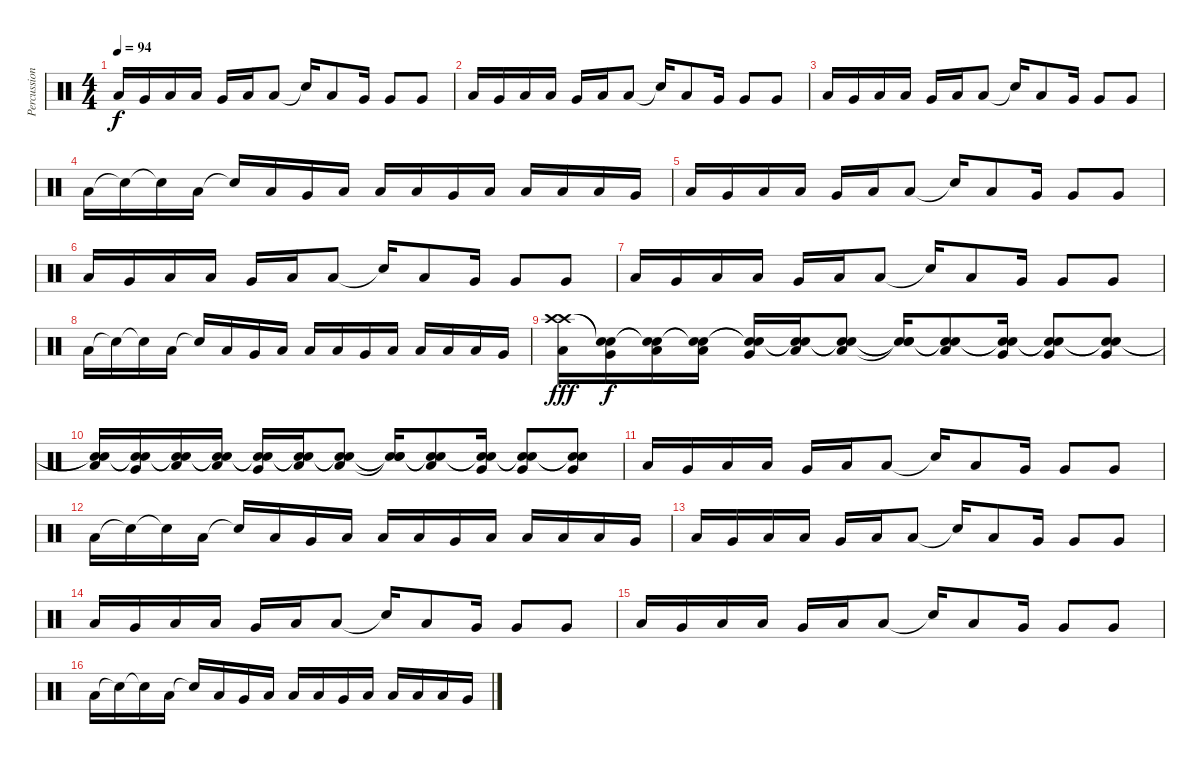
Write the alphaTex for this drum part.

\track ("Percussion" "Percussion") {instrument percussion}
\staff {score}
\articulation defaults
\ts (4 4)
\tempo 94
\clef neutral
\ks c "Low Floor Tom (hit)".16{dy f} "Very Low Tom (hit)".16 "Low Floor Tom (hit)".16 "Low Floor Tom (hit)".16 "Very Low Tom (hit)".16 "Low Floor Tom (hit)".16 "Low Floor Tom (hit)".8 "Snare (hit)"{t}.16 "Low Floor Tom (hit)".8 "Very Low Tom (hit)".16 "Very Low Tom (hit)".8 "Very Low Tom (hit)".8
|
"Low Floor Tom (hit)".16 "Very Low Tom (hit)".16 "Low Floor Tom (hit)".16 "Low Floor Tom (hit)".16 "Very Low Tom (hit)".16 "Low Floor Tom (hit)".16 "Low Floor Tom (hit)".8 "Snare (hit)"{t}.16 "Low Floor Tom (hit)".8 "Very Low Tom (hit)".16 "Very Low Tom (hit)".8 "Very Low Tom (hit)".8 |
"Low Floor Tom (hit)".16 "Very Low Tom (hit)".16 "Low Floor Tom (hit)".16 "Low Floor Tom (hit)".16 "Very Low Tom (hit)".16 "Low Floor Tom (hit)".16 "Low Floor Tom (hit)".8 "Snare (hit)"{t}.16 "Low Floor Tom (hit)".8 "Very Low Tom (hit)".16 "Very Low Tom (hit)".8 "Very Low Tom (hit)".8 |
"Low Floor Tom (hit)".16 "Snare (hit)"{t}.16 "Snare (hit)"{t}.16 "Low Floor Tom (hit)".16 "Snare (hit)"{t}.16 "Low Floor Tom (hit)".16 "Very Low Tom (hit)".16 "Low Floor Tom (hit)".16 "Low Floor Tom (hit)".16 "Low Tom (hit)".16 "Very Low Tom (hit)".16 "Low Floor Tom (hit)".16 "Low Tom (hit)".16 "Low Floor Tom (hit)".16 "Low Tom (hit)".16 "Very Low Tom (hit)".16 |
"Low Floor Tom (hit)".16 "Very Low Tom (hit)".16 "Low Floor Tom (hit)".16 "Low Floor Tom (hit)".16 "Very Low Tom (hit)".16 "Low Floor Tom (hit)".16 "Low Floor Tom (hit)".8 "Snare (hit)"{t}.16 "Low Floor Tom (hit)".8 "Very Low Tom (hit)".16 "Very Low Tom (hit)".8 "Very Low Tom (hit)".8 |
"Low Floor Tom (hit)".16 "Very Low Tom (hit)".16 "Low Floor Tom (hit)".16 "Low Floor Tom (hit)".16 "Very Low Tom (hit)".16 "Low Floor Tom (hit)".16 "Low Floor Tom (hit)".8 "Snare (hit)"{t}.16 "Low Floor Tom (hit)".8 "Very Low Tom (hit)".16 "Very Low Tom (hit)".8 "Very Low Tom (hit)".8 |
"Low Floor Tom (hit)".16 "Very Low Tom (hit)".16 "Low Floor Tom (hit)".16 "Low Floor Tom (hit)".16 "Very Low Tom (hit)".16 "Low Floor Tom (hit)".16 "Low Floor Tom (hit)".8 "Snare (hit)"{t}.16 "Low Floor Tom (hit)".8 "Very Low Tom (hit)".16 "Very Low Tom (hit)".8 "Very Low Tom (hit)".8 |
"Low Floor Tom (hit)".16 "Snare (hit)"{t}.16 "Snare (hit)"{t}.16 "Low Floor Tom (hit)".16 "Snare (hit)"{t}.16 "Low Floor Tom (hit)".16 "Very Low Tom (hit)".16 "Low Floor Tom (hit)".16 "Low Floor Tom (hit)".16 "Low Tom (hit)".16 "Very Low Tom (hit)".16 "Low Floor Tom (hit)".16 "Low Tom (hit)".16 "Low Floor Tom (hit)".16 "Low Tom (hit)".16 "Very Low Tom (hit)".16 |
("Crash high (hit)" "Crash high (hit)" "Low Floor Tom (hit)").16{dy fff} ("Snare (hit)"{t} "Snare (hit)"{t} "Very Low Tom (hit)").16{dy f} ("Snare (hit)"{t} "Snare (hit)"{t} "Low Floor Tom (hit)").16 ("Snare (hit)"{t} "Snare (hit)"{t} "Low Floor Tom (hit)").16 ("Snare (hit)"{t} "Snare (hit)"{t} "Very Low Tom (hit)").16 ("Snare (hit)"{t} "Snare (hit)"{t} "Low Floor Tom (hit)").16 ("Snare (hit)"{t} "Snare (hit)"{t} "Low Floor Tom (hit)").8 ("Snare (hit)"{t} "Snare (hit)"{t} "Snare (hit)"{t}).16 ("Snare (hit)"{t} "Snare (hit)"{t} "Low Floor Tom (hit)").8 ("Snare (hit)"{t} "Snare (hit)"{t} "Very Low Tom (hit)").16 ("Snare (hit)"{t} "Snare (hit)"{t} "Very Low Tom (hit)").8 ("Snare (hit)"{t} "Snare (hit)"{t} "Very Low Tom (hit)").8 |
("Snare (hit)"{t} "Snare (hit)"{t} "Low Floor Tom (hit)").16 ("Snare (hit)"{t} "Snare (hit)"{t} "Very Low Tom (hit)").16 ("Snare (hit)"{t} "Snare (hit)"{t} "Low Floor Tom (hit)").16 ("Snare (hit)"{t} "Snare (hit)"{t} "Low Floor Tom (hit)").16 ("Snare (hit)"{t} "Snare (hit)"{t} "Very Low Tom (hit)").16 ("Snare (hit)"{t} "Snare (hit)"{t} "Low Floor Tom (hit)").16 ("Snare (hit)"{t} "Snare (hit)"{t} "Low Floor Tom (hit)").8 ("Snare (hit)"{t} "Snare (hit)"{t} "Snare (hit)"{t}).16 ("Snare (hit)"{t} "Snare (hit)"{t} "Low Floor Tom (hit)").8 ("Snare (hit)"{t} "Snare (hit)"{t} "Very Low Tom (hit)").16 ("Snare (hit)"{t} "Snare (hit)"{t} "Very Low Tom (hit)").8 ("Snare (hit)"{t} "Snare (hit)"{t} "Very Low Tom (hit)").8 |
"Low Floor Tom (hit)".16 "Very Low Tom (hit)".16 "Low Floor Tom (hit)".16 "Low Floor Tom (hit)".16 "Very Low Tom (hit)".16 "Low Floor Tom (hit)".16 "Low Floor Tom (hit)".8 "Snare (hit)"{t}.16 "Low Floor Tom (hit)".8 "Very Low Tom (hit)".16 "Very Low Tom (hit)".8 "Very Low Tom (hit)".8 |
"Low Floor Tom (hit)".16 "Snare (hit)"{t}.16 "Snare (hit)"{t}.16 "Low Floor Tom (hit)".16 "Snare (hit)"{t}.16 "Low Floor Tom (hit)".16 "Very Low Tom (hit)".16 "Low Floor Tom (hit)".16 "Low Floor Tom (hit)".16 "Low Tom (hit)".16 "Very Low Tom (hit)".16 "Low Floor Tom (hit)".16 "Low Tom (hit)".16 "Low Floor Tom (hit)".16 "Low Tom (hit)".16 "Very Low Tom (hit)".16 |
"Low Floor Tom (hit)".16 "Very Low Tom (hit)".16 "Low Floor Tom (hit)".16 "Low Floor Tom (hit)".16 "Very Low Tom (hit)".16 "Low Floor Tom (hit)".16 "Low Floor Tom (hit)".8 "Snare (hit)"{t}.16 "Low Floor Tom (hit)".8 "Very Low Tom (hit)".16 "Very Low Tom (hit)".8 "Very Low Tom (hit)".8 |
"Low Floor Tom (hit)".16 "Very Low Tom (hit)".16 "Low Floor Tom (hit)".16 "Low Floor Tom (hit)".16 "Very Low Tom (hit)".16 "Low Floor Tom (hit)".16 "Low Floor Tom (hit)".8 "Snare (hit)"{t}.16 "Low Floor Tom (hit)".8 "Very Low Tom (hit)".16 "Very Low Tom (hit)".8 "Very Low Tom (hit)".8 |
"Low Floor Tom (hit)".16 "Very Low Tom (hit)".16 "Low Floor Tom (hit)".16 "Low Floor Tom (hit)".16 "Very Low Tom (hit)".16 "Low Floor Tom (hit)".16 "Low Floor Tom (hit)".8 "Snare (hit)"{t}.16 "Low Floor Tom (hit)".8 "Very Low Tom (hit)".16 "Very Low Tom (hit)".8 "Very Low Tom (hit)".8 |
"Low Floor Tom (hit)".16 "Snare (hit)"{t}.16 "Snare (hit)"{t}.16 "Low Floor Tom (hit)".16 "Snare (hit)"{t}.16 "Low Floor Tom (hit)".16 "Very Low Tom (hit)".16 "Low Floor Tom (hit)".16 "Low Floor Tom (hit)".16 "Low Tom (hit)".16 "Very Low Tom (hit)".16 "Low Floor Tom (hit)".16 "Low Tom (hit)".16 "Low Floor Tom (hit)".16 "Low Tom (hit)".16 "Very Low Tom (hit)".16
